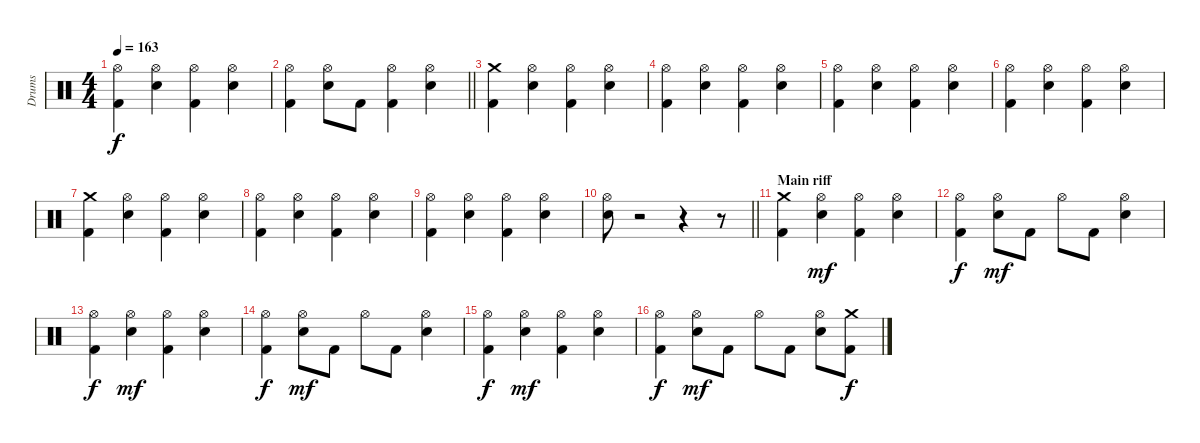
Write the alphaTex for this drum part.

\track ("Drums" "Drums") {instrument percussion}
\staff {score}
\articulation defaults
\ts (4 4)
\tempo 163
\clef neutral
\ks c
("Hi-Hat (open)" "Kick (hit) 2").4{dy f} ("Hi-Hat (open)" "Electric Snare (hit)").4 ("Hi-Hat (open)" "Kick (hit) 2").4 ("Hi-Hat (open)" "Electric Snare (hit)").4 |
\barLineRight lightlight
("Hi-Hat (open)" "Kick (hit) 2").4 ("Hi-Hat (open)" "Electric Snare (hit)").8 "Kick (hit) 2".8 ("Hi-Hat (open)" "Kick (hit) 2").4 ("Hi-Hat (open)" "Electric Snare (hit)").4 |
\section ("" "")
("Crash medium (hit)" "Kick (hit) 2").4 ("Hi-Hat (open)" "Electric Snare (hit)").4 ("Hi-Hat (open)" "Kick (hit) 2").4 ("Hi-Hat (open)" "Electric Snare (hit)").4 |
("Hi-Hat (open)" "Kick (hit) 2").4 ("Hi-Hat (open)" "Electric Snare (hit)").4 ("Hi-Hat (open)" "Kick (hit) 2").4 ("Hi-Hat (open)" "Electric Snare (hit)").4 |
("Hi-Hat (open)" "Kick (hit) 2").4 ("Hi-Hat (open)" "Electric Snare (hit)").4 ("Hi-Hat (open)" "Kick (hit) 2").4 ("Hi-Hat (open)" "Electric Snare (hit)").4 |
("Hi-Hat (open)" "Kick (hit) 2").4 ("Hi-Hat (open)" "Electric Snare (hit)").4 ("Hi-Hat (open)" "Kick (hit) 2").4 ("Hi-Hat (open)" "Electric Snare (hit)").4 |
("Crash medium (hit)" "Kick (hit) 2").4 ("Hi-Hat (open)" "Electric Snare (hit)").4 ("Hi-Hat (open)" "Kick (hit) 2").4 ("Hi-Hat (open)" "Electric Snare (hit)").4 |
("Hi-Hat (open)" "Kick (hit) 2").4 ("Hi-Hat (open)" "Electric Snare (hit)").4 ("Hi-Hat (open)" "Kick (hit) 2").4 ("Hi-Hat (open)" "Electric Snare (hit)").4 |
("Hi-Hat (open)" "Kick (hit) 2").4 ("Hi-Hat (open)" "Electric Snare (hit)").4 ("Hi-Hat (open)" "Kick (hit) 2").4 ("Hi-Hat (open)" "Electric Snare (hit)").4 |
\barLineRight lightlight
("Hi-Hat (open)" "Electric Snare (hit)").8 r.2 r.4 r.8 |
\section ("" "Main riff")
("Crash medium (hit)" "Kick (hit) 2").4 ("Hi-Hat (open)" "Electric Snare (hit)").4{dy mf} ("Hi-Hat (open)" "Kick (hit) 2").4 ("Hi-Hat (open)" "Electric Snare (hit)").4 |
("Hi-Hat (open)" "Kick (hit) 2").4{dy f} ("Hi-Hat (open)" "Electric Snare (hit)").8{dy mf} "Kick (hit) 2".8 "Hi-Hat (open)".8 "Kick (hit) 2".8 ("Hi-Hat (open)" "Electric Snare (hit)").4 |
("Hi-Hat (open)" "Kick (hit) 2").4{dy f} ("Hi-Hat (open)" "Electric Snare (hit)").4{dy mf} ("Hi-Hat (open)" "Kick (hit) 2").4 ("Hi-Hat (open)" "Electric Snare (hit)").4 |
("Hi-Hat (open)" "Kick (hit) 2").4{dy f} ("Hi-Hat (open)" "Electric Snare (hit)").8{dy mf} "Kick (hit) 2".8 "Hi-Hat (open)".8 "Kick (hit) 2".8 ("Hi-Hat (open)" "Electric Snare (hit)").4 |
("Hi-Hat (open)" "Kick (hit) 2").4{dy f} ("Hi-Hat (open)" "Electric Snare (hit)").4{dy mf} ("Hi-Hat (open)" "Kick (hit) 2").4 ("Hi-Hat (open)" "Electric Snare (hit)").4 |
("Hi-Hat (open)" "Kick (hit) 2").4{dy f} ("Hi-Hat (open)" "Electric Snare (hit)").8{dy mf} "Kick (hit) 2".8 "Hi-Hat (open)".8 "Kick (hit) 2".8 ("Hi-Hat (open)" "Electric Snare (hit)").8 ("Crash medium (hit)" "Kick (hit) 2").8{dy f}
